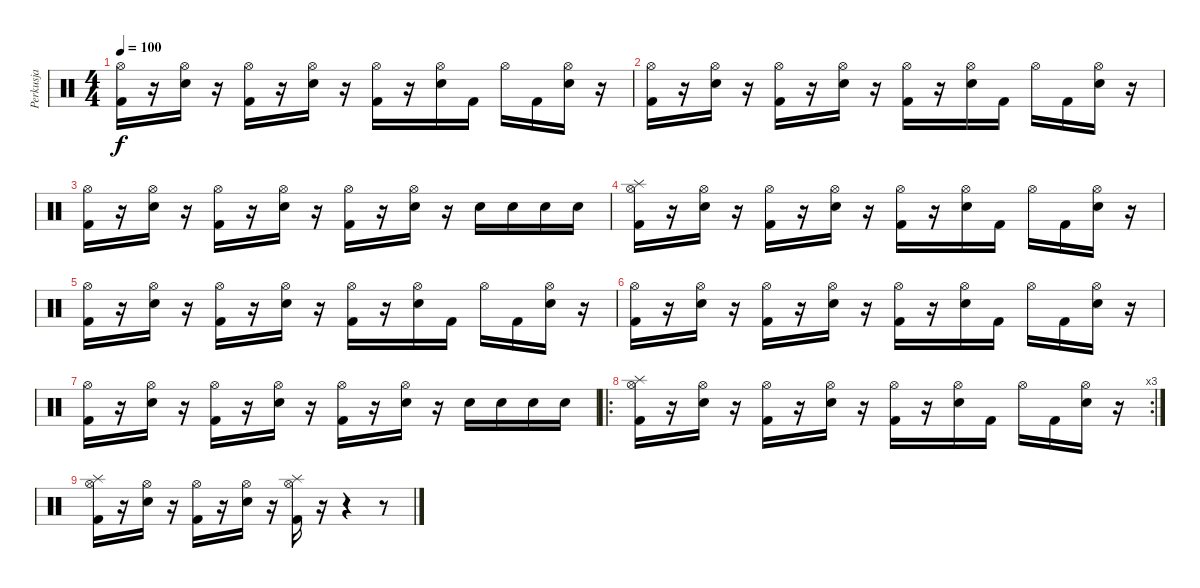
\track ("Perkusja" "Perkusja") {instrument percussion}
\staff {score}
\articulation defaults
\ts (4 4)
\tempo 100
\clef neutral
\ks c
("Hi-Hat (open)" "Kick (hit) 2").16{dy f} r.16 ("Hi-Hat (open)" "Electric Snare (hit)").16 r.16 ("Hi-Hat (open)" "Kick (hit) 2").16 r.16 ("Hi-Hat (open)" "Electric Snare (hit)").16 r.16 ("Hi-Hat (open)" "Kick (hit) 2").16 r.16 ("Hi-Hat (open)" "Electric Snare (hit)").16 "Kick (hit) 2".16 "Hi-Hat (open)".16 "Kick (hit) 2".16 ("Hi-Hat (open)" "Electric Snare (hit)").16 r.16 |
("Hi-Hat (open)" "Kick (hit) 2").16 r.16 ("Hi-Hat (open)" "Electric Snare (hit)").16 r.16 ("Hi-Hat (open)" "Kick (hit) 2").16 r.16 ("Hi-Hat (open)" "Electric Snare (hit)").16 r.16 ("Hi-Hat (open)" "Kick (hit) 2").16 r.16 ("Hi-Hat (open)" "Electric Snare (hit)").16 "Kick (hit) 2".16 "Hi-Hat (open)".16 "Kick (hit) 2".16 ("Hi-Hat (open)" "Electric Snare (hit)").16 r.16 |
("Hi-Hat (open)" "Kick (hit) 2").16 r.16 ("Hi-Hat (open)" "Electric Snare (hit)").16 r.16 ("Hi-Hat (open)" "Kick (hit) 2").16 r.16 ("Hi-Hat (open)" "Electric Snare (hit)").16 r.16 ("Hi-Hat (open)" "Kick (hit) 2").16 r.16 ("Hi-Hat (open)" "Electric Snare (hit)").16 r.16 "Electric Snare (hit)".16 "Electric Snare (hit)".16 "Electric Snare (hit)".16 "Electric Snare (hit)".16 |
("Splash (hit)" "Hi-Hat (open)" "Kick (hit) 2").16 r.16 ("Hi-Hat (open)" "Electric Snare (hit)").16 r.16 ("Hi-Hat (open)" "Kick (hit) 2").16 r.16 ("Hi-Hat (open)" "Electric Snare (hit)").16 r.16 ("Hi-Hat (open)" "Kick (hit) 2").16 r.16 ("Hi-Hat (open)" "Electric Snare (hit)").16 "Kick (hit) 2".16 "Hi-Hat (open)".16 "Kick (hit) 2".16 ("Hi-Hat (open)" "Electric Snare (hit)").16 r.16 |
("Hi-Hat (open)" "Kick (hit) 2").16 r.16 ("Hi-Hat (open)" "Electric Snare (hit)").16 r.16 ("Hi-Hat (open)" "Kick (hit) 2").16 r.16 ("Hi-Hat (open)" "Electric Snare (hit)").16 r.16 ("Hi-Hat (open)" "Kick (hit) 2").16 r.16 ("Hi-Hat (open)" "Electric Snare (hit)").16 "Kick (hit) 2".16 "Hi-Hat (open)".16 "Kick (hit) 2".16 ("Hi-Hat (open)" "Electric Snare (hit)").16 r.16 |
("Hi-Hat (open)" "Kick (hit) 2").16 r.16 ("Hi-Hat (open)" "Electric Snare (hit)").16 r.16 ("Hi-Hat (open)" "Kick (hit) 2").16 r.16 ("Hi-Hat (open)" "Electric Snare (hit)").16 r.16 ("Hi-Hat (open)" "Kick (hit) 2").16 r.16 ("Hi-Hat (open)" "Electric Snare (hit)").16 "Kick (hit) 2".16 "Hi-Hat (open)".16 "Kick (hit) 2".16 ("Hi-Hat (open)" "Electric Snare (hit)").16 r.16 |
("Hi-Hat (open)" "Kick (hit) 2").16 r.16 ("Hi-Hat (open)" "Electric Snare (hit)").16 r.16 ("Hi-Hat (open)" "Kick (hit) 2").16 r.16 ("Hi-Hat (open)" "Electric Snare (hit)").16 r.16 ("Hi-Hat (open)" "Kick (hit) 2").16 r.16 ("Hi-Hat (open)" "Electric Snare (hit)").16 r.16 "Electric Snare (hit)".16 "Electric Snare (hit)".16 "Electric Snare (hit)".16 "Electric Snare (hit)".16 |
\ro
\rc 3
("Splash (hit)" "Hi-Hat (open)" "Kick (hit) 2").16 r.16 ("Hi-Hat (open)" "Electric Snare (hit)").16 r.16 ("Hi-Hat (open)" "Kick (hit) 2").16 r.16 ("Hi-Hat (open)" "Electric Snare (hit)").16 r.16 ("Hi-Hat (open)" "Kick (hit) 2").16 r.16 ("Hi-Hat (open)" "Electric Snare (hit)").16 "Kick (hit) 2".16 "Hi-Hat (open)".16 "Kick (hit) 2".16 ("Hi-Hat (open)" "Electric Snare (hit)").16 r.16 |
("Splash (hit)" "Hi-Hat (open)" "Kick (hit) 2").16 r.16 ("Hi-Hat (open)" "Electric Snare (hit)").16 r.16 ("Hi-Hat (open)" "Kick (hit) 2").16 r.16 ("Hi-Hat (open)" "Electric Snare (hit)").16 r.16 ("Splash (hit)" "Hi-Hat (open)" "Kick (hit) 2").16 r.16 r.4 r.8
